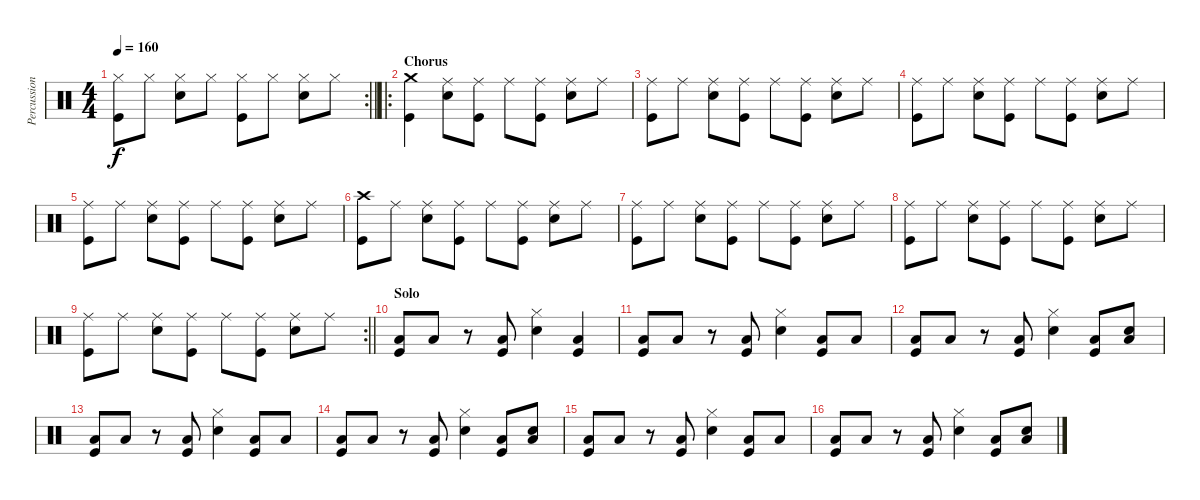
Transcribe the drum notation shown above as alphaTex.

\track ("Percussion" "Percussion") {instrument percussion}
\staff {score}
\articulation defaults
\rc 2
\ts (4 4)
\tempo 160
\clef neutral
\barLineRight lightlight
\ks c
("Kick (hit)" "Hi-Hat (closed)").8{dy f} "Hi-Hat (closed)".8 ("Hi-Hat (closed)" "Snare (hit) 2").8 "Hi-Hat (closed)".8 ("Kick (hit)" "Hi-Hat (closed)").8 "Hi-Hat (closed)".8 ("Hi-Hat (closed)" "Snare (hit) 2").8 "Hi-Hat (closed)".8 |
\ro
\section ("" "Chorus")
("Kick (hit)" "Crash medium (hit)").4 ("Ride (middle)" "Snare (hit) 2").8 ("Kick (hit)" "Ride (middle)").8 "Ride (middle)".8 ("Kick (hit)" "Ride (middle)").8 ("Ride (middle)" "Snare (hit) 2").8 "Ride (middle)".8 |
("Kick (hit)" "Ride (middle)").8 "Ride (middle)".8 ("Ride (middle)" "Snare (hit) 2").8 ("Kick (hit)" "Ride (middle)").8 "Ride (middle)".8 ("Kick (hit)" "Ride (middle)").8 ("Ride (middle)" "Snare (hit) 2").8 "Ride (middle)".8 |
("Kick (hit)" "Ride (middle)").8 "Ride (middle)".8 ("Ride (middle)" "Snare (hit) 2").8 ("Kick (hit)" "Ride (middle)").8 "Ride (middle)".8 ("Kick (hit)" "Ride (middle)").8 ("Ride (middle)" "Snare (hit) 2").8 "Ride (middle)".8 |
("Kick (hit)" "Ride (middle)").8 "Ride (middle)".8 ("Ride (middle)" "Snare (hit) 2").8 ("Kick (hit)" "Ride (middle)").8 "Ride (middle)".8 ("Kick (hit)" "Ride (middle)").8 ("Ride (middle)" "Snare (hit) 2").8 "Ride (middle)".8 |
("Kick (hit)" "Crash high (hit)").8 "Ride (middle)".8 ("Ride (middle)" "Snare (hit) 2").8 ("Kick (hit)" "Ride (middle)").8 "Ride (middle)".8 ("Kick (hit)" "Ride (middle)").8 ("Ride (middle)" "Snare (hit) 2").8 "Ride (middle)".8 |
("Kick (hit)" "Ride (middle)").8 "Ride (middle)".8 ("Ride (middle)" "Snare (hit) 2").8 ("Kick (hit)" "Ride (middle)").8 "Ride (middle)".8 ("Kick (hit)" "Ride (middle)").8 ("Ride (middle)" "Snare (hit) 2").8 "Ride (middle)".8 |
("Kick (hit)" "Ride (middle)").8 "Ride (middle)".8 ("Ride (middle)" "Snare (hit) 2").8 ("Kick (hit)" "Ride (middle)").8 "Ride (middle)".8 ("Kick (hit)" "Ride (middle)").8 ("Ride (middle)" "Snare (hit) 2").8 "Ride (middle)".8 |
\rc 2
\barLineRight lightlight
("Kick (hit)" "Ride (middle)").8 "Ride (middle)".8 ("Ride (middle)" "Snare (hit) 2").8 ("Kick (hit)" "Ride (middle)").8 "Ride (middle)".8 ("Kick (hit)" "Ride (middle)").8 ("Ride (middle)" "Snare (hit) 2").8 "Ride (middle)".8 |
\section ("" "Solo")
("Low Tom (hit)" "Kick (hit)").8 "Low Tom (hit)".8 r.8 ("Low Tom (hit)" "Kick (hit)").8 ("Hi-Hat (closed)" "Snare (hit) 2").4 ("Low Tom (hit)" "Kick (hit)").4 |
("Low Tom (hit)" "Kick (hit)").8 "Low Tom (hit)".8 r.8 ("Low Tom (hit)" "Kick (hit)").8 ("Hi-Hat (closed)" "Snare (hit) 2").4 ("Low Tom (hit)" "Kick (hit)").8 "Low Tom (hit)".8 |
("Low Tom (hit)" "Kick (hit)").8 "Low Tom (hit)".8 r.8 ("Low Tom (hit)" "Kick (hit)").8 ("Hi-Hat (closed)" "Snare (hit) 2").4 ("Low Tom (hit)" "Kick (hit)").8 ("Low Tom (hit)" "Snare (hit) 2").8 |
("Low Tom (hit)" "Kick (hit)").8 "Low Tom (hit)".8 r.8 ("Low Tom (hit)" "Kick (hit)").8 ("Hi-Hat (closed)" "Snare (hit) 2").4 ("Low Tom (hit)" "Kick (hit)").8 "Low Tom (hit)".8 |
("Low Tom (hit)" "Kick (hit)").8 "Low Tom (hit)".8 r.8 ("Low Tom (hit)" "Kick (hit)").8 ("Hi-Hat (closed)" "Snare (hit) 2").4 ("Low Tom (hit)" "Kick (hit)").8 ("Low Tom (hit)" "Snare (hit) 2").8 |
("Low Tom (hit)" "Kick (hit)").8 "Low Tom (hit)".8 r.8 ("Low Tom (hit)" "Kick (hit)").8 ("Hi-Hat (closed)" "Snare (hit) 2").4 ("Low Tom (hit)" "Kick (hit)").8 "Low Tom (hit)".8 |
("Low Tom (hit)" "Kick (hit)").8 "Low Tom (hit)".8 r.8 ("Low Tom (hit)" "Kick (hit)").8 ("Hi-Hat (closed)" "Snare (hit) 2").4 ("Low Tom (hit)" "Kick (hit)").8 ("Low Tom (hit)" "Snare (hit) 2").8
